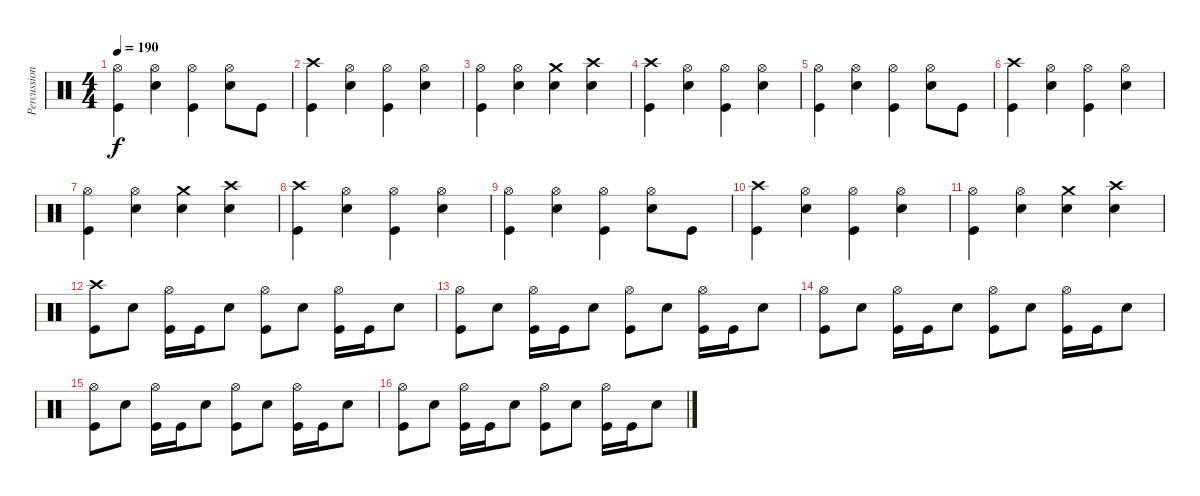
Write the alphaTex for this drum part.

\track ("Percussion" "Percussion") {instrument percussion}
\staff {score}
\articulation defaults
\ts (4 4)
\tempo 190
\clef neutral
\ks c
("Hi-Hat (open)" "Kick (hit)").4{dy f} ("Hi-Hat (open)" "Snare (hit) 2").4 ("Hi-Hat (open)" "Kick (hit)").4 ("Hi-Hat (open)" "Snare (hit) 2").8 "Kick (hit)".8 |
("Crash high (hit)" "Kick (hit)").4 ("Hi-Hat (open)" "Snare (hit) 2").4 ("Hi-Hat (open)" "Kick (hit)").4 ("Hi-Hat (open)" "Snare (hit) 2").4 |
("Hi-Hat (open)" "Kick (hit)").4 ("Hi-Hat (open)" "Snare (hit) 2").4 ("Crash medium (hit)" "Snare (hit) 2").4 ("Crash high (hit)" "Snare (hit) 2").4 |
("Crash high (hit)" "Kick (hit)").4 ("Hi-Hat (open)" "Snare (hit) 2").4 ("Hi-Hat (open)" "Kick (hit)").4 ("Hi-Hat (open)" "Snare (hit) 2").4 |
("Hi-Hat (open)" "Kick (hit)").4 ("Hi-Hat (open)" "Snare (hit) 2").4 ("Hi-Hat (open)" "Kick (hit)").4 ("Hi-Hat (open)" "Snare (hit) 2").8 "Kick (hit)".8 |
("Crash high (hit)" "Kick (hit)").4 ("Hi-Hat (open)" "Snare (hit) 2").4 ("Hi-Hat (open)" "Kick (hit)").4 ("Hi-Hat (open)" "Snare (hit) 2").4 |
("Hi-Hat (open)" "Kick (hit)").4 ("Hi-Hat (open)" "Snare (hit) 2").4 ("Crash medium (hit)" "Snare (hit) 2").4 ("Crash high (hit)" "Snare (hit) 2").4 |
("Crash high (hit)" "Kick (hit)").4 ("Hi-Hat (open)" "Snare (hit) 2").4 ("Hi-Hat (open)" "Kick (hit)").4 ("Hi-Hat (open)" "Snare (hit) 2").4 |
("Hi-Hat (open)" "Kick (hit)").4 ("Hi-Hat (open)" "Snare (hit) 2").4 ("Hi-Hat (open)" "Kick (hit)").4 ("Hi-Hat (open)" "Snare (hit) 2").8 "Kick (hit)".8 |
("Crash high (hit)" "Kick (hit)").4 ("Hi-Hat (open)" "Snare (hit) 2").4 ("Hi-Hat (open)" "Kick (hit)").4 ("Hi-Hat (open)" "Snare (hit) 2").4 |
("Hi-Hat (open)" "Kick (hit)").4 ("Hi-Hat (open)" "Snare (hit) 2").4 ("Crash medium (hit)" "Snare (hit) 2").4 ("Crash high (hit)" "Snare (hit) 2").4 |
("Crash high (hit)" "Kick (hit)").8 "Snare (hit) 2".8 ("Hi-Hat (open)" "Kick (hit)").16 "Kick (hit)".16 "Snare (hit) 2".8 ("Hi-Hat (open)" "Kick (hit)").8 "Snare (hit) 2".8 ("Hi-Hat (open)" "Kick (hit)").16 "Kick (hit)".16 "Snare (hit) 2".8 |
("Hi-Hat (open)" "Kick (hit)").8 "Snare (hit) 2".8 ("Hi-Hat (open)" "Kick (hit)").16 "Kick (hit)".16 "Snare (hit) 2".8 ("Hi-Hat (open)" "Kick (hit)").8 "Snare (hit) 2".8 ("Hi-Hat (open)" "Kick (hit)").16 "Kick (hit)".16 "Snare (hit) 2".8 |
("Hi-Hat (open)" "Kick (hit)").8 "Snare (hit) 2".8 ("Hi-Hat (open)" "Kick (hit)").16 "Kick (hit)".16 "Snare (hit) 2".8 ("Hi-Hat (open)" "Kick (hit)").8 "Snare (hit) 2".8 ("Hi-Hat (open)" "Kick (hit)").16 "Kick (hit)".16 "Snare (hit) 2".8 |
("Hi-Hat (open)" "Kick (hit)").8 "Snare (hit) 2".8 ("Hi-Hat (open)" "Kick (hit)").16 "Kick (hit)".16 "Snare (hit) 2".8 ("Hi-Hat (open)" "Kick (hit)").8 "Snare (hit) 2".8 ("Hi-Hat (open)" "Kick (hit)").16 "Kick (hit)".16 "Snare (hit) 2".8 |
("Hi-Hat (open)" "Kick (hit)").8 "Snare (hit) 2".8 ("Hi-Hat (open)" "Kick (hit)").16 "Kick (hit)".16 "Snare (hit) 2".8 ("Hi-Hat (open)" "Kick (hit)").8 "Snare (hit) 2".8 ("Hi-Hat (open)" "Kick (hit)").16 "Kick (hit)".16 "Snare (hit) 2".8
